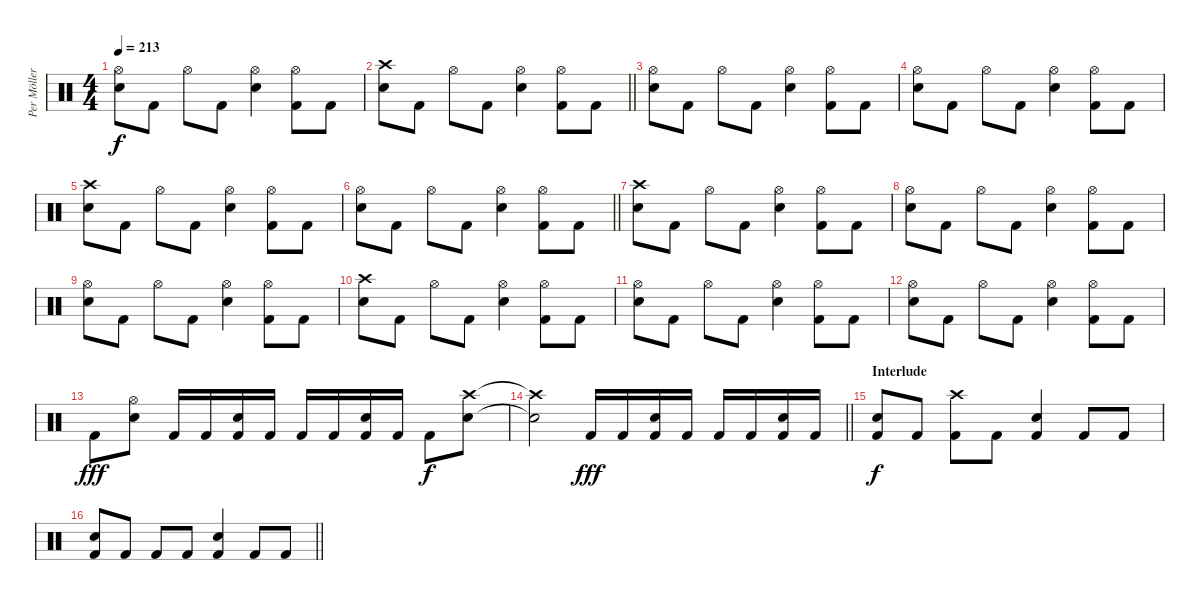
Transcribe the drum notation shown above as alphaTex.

\track ("Per Möller Jensen" "Per Möller") {instrument percussion}
\staff {score}
\articulation defaults
\ts (4 4)
\tempo 213
\clef neutral
\ks c
("Hi-Hat (open)" "Electric Snare (hit)").8{dy f} "Kick (hit) 2".8 "Hi-Hat (open)".8 "Kick (hit) 2".8 ("Hi-Hat (open)" "Electric Snare (hit)").4 ("Hi-Hat (open)" "Kick (hit) 2").8 "Kick (hit) 2".8 |
\barLineRight lightlight
("Crash high (hit)" "Electric Snare (hit)").8 "Kick (hit) 2".8 "Hi-Hat (open)".8 "Kick (hit) 2".8 ("Hi-Hat (open)" "Electric Snare (hit)").4 ("Hi-Hat (open)" "Kick (hit) 2").8 "Kick (hit) 2".8 |
\section ("" "")
("Hi-Hat (open)" "Electric Snare (hit)").8 "Kick (hit) 2".8 "Hi-Hat (open)".8 "Kick (hit) 2".8 ("Hi-Hat (open)" "Electric Snare (hit)").4 ("Hi-Hat (open)" "Kick (hit) 2").8 "Kick (hit) 2".8 |
("Hi-Hat (open)" "Electric Snare (hit)").8 "Kick (hit) 2".8 "Hi-Hat (open)".8 "Kick (hit) 2".8 ("Hi-Hat (open)" "Electric Snare (hit)").4 ("Hi-Hat (open)" "Kick (hit) 2").8 "Kick (hit) 2".8 |
("Crash high (hit)" "Electric Snare (hit)").8 "Kick (hit) 2".8 "Hi-Hat (open)".8 "Kick (hit) 2".8 ("Hi-Hat (open)" "Electric Snare (hit)").4 ("Hi-Hat (open)" "Kick (hit) 2").8 "Kick (hit) 2".8 |
\barLineRight lightlight
("Hi-Hat (open)" "Electric Snare (hit)").8 "Kick (hit) 2".8 "Hi-Hat (open)".8 "Kick (hit) 2".8 ("Hi-Hat (open)" "Electric Snare (hit)").4 ("Hi-Hat (open)" "Kick (hit) 2").8 "Kick (hit) 2".8 |
\section ("" "")
("Crash high (hit)" "Electric Snare (hit)").8 "Kick (hit) 2".8 "Hi-Hat (open)".8 "Kick (hit) 2".8 ("Hi-Hat (open)" "Electric Snare (hit)").4 ("Hi-Hat (open)" "Kick (hit) 2").8 "Kick (hit) 2".8 |
("Hi-Hat (open)" "Electric Snare (hit)").8 "Kick (hit) 2".8 "Hi-Hat (open)".8 "Kick (hit) 2".8 ("Hi-Hat (open)" "Electric Snare (hit)").4 ("Hi-Hat (open)" "Kick (hit) 2").8 "Kick (hit) 2".8 |
("Hi-Hat (open)" "Electric Snare (hit)").8 "Kick (hit) 2".8 "Hi-Hat (open)".8 "Kick (hit) 2".8 ("Hi-Hat (open)" "Electric Snare (hit)").4 ("Hi-Hat (open)" "Kick (hit) 2").8 "Kick (hit) 2".8 |
("Crash high (hit)" "Electric Snare (hit)").8 "Kick (hit) 2".8 "Hi-Hat (open)".8 "Kick (hit) 2".8 ("Hi-Hat (open)" "Electric Snare (hit)").4 ("Hi-Hat (open)" "Kick (hit) 2").8 "Kick (hit) 2".8 |
("Hi-Hat (open)" "Electric Snare (hit)").8 "Kick (hit) 2".8 "Hi-Hat (open)".8 "Kick (hit) 2".8 ("Hi-Hat (open)" "Electric Snare (hit)").4 ("Hi-Hat (open)" "Kick (hit) 2").8 "Kick (hit) 2".8 |
("Hi-Hat (open)" "Electric Snare (hit)").8 "Kick (hit) 2".8 "Hi-Hat (open)".8 "Kick (hit) 2".8 ("Hi-Hat (open)" "Electric Snare (hit)").4 ("Hi-Hat (open)" "Kick (hit) 2").8 "Kick (hit) 2".8 |
"Kick (hit) 2".8{dy fff} ("Hi-Hat (open)" "Electric Snare (hit)").8 "Kick (hit) 2".16 "Kick (hit) 2".16 ("Electric Snare (hit)" "Kick (hit) 2").16 "Kick (hit) 2".16 "Kick (hit) 2".16 "Kick (hit) 2".16 ("Electric Snare (hit)" "Kick (hit) 2").16 "Kick (hit) 2".16 "Kick (hit) 2".8{dy f} ("Crash high (hit)" "Electric Snare (hit)").8 |
\barLineRight lightlight
("Crash high (hit)"{t} "Electric Snare (hit)"{t}).2 "Kick (hit) 2".16{dy fff} "Kick (hit) 2".16 ("Electric Snare (hit)" "Kick (hit) 2").16 "Kick (hit) 2".16 "Kick (hit) 2".16 "Kick (hit) 2".16 ("Electric Snare (hit)" "Kick (hit) 2").16 "Kick (hit) 2".16 |
\section ("" "Interlude")
("Electric Snare (hit)" "Kick (hit) 2").8{dy f} "Kick (hit) 2".8 ("Crash high (hit)" "Kick (hit) 2").8 "Kick (hit) 2".8 ("Electric Snare (hit)" "Kick (hit) 2").4 "Kick (hit) 2".8 "Kick (hit) 2".8 |
\barLineRight lightlight
("Electric Snare (hit)" "Kick (hit) 2").8 "Kick (hit) 2".8 "Kick (hit) 2".8 "Kick (hit) 2".8 ("Electric Snare (hit)" "Kick (hit) 2").4 "Kick (hit) 2".8 "Kick (hit) 2".8
